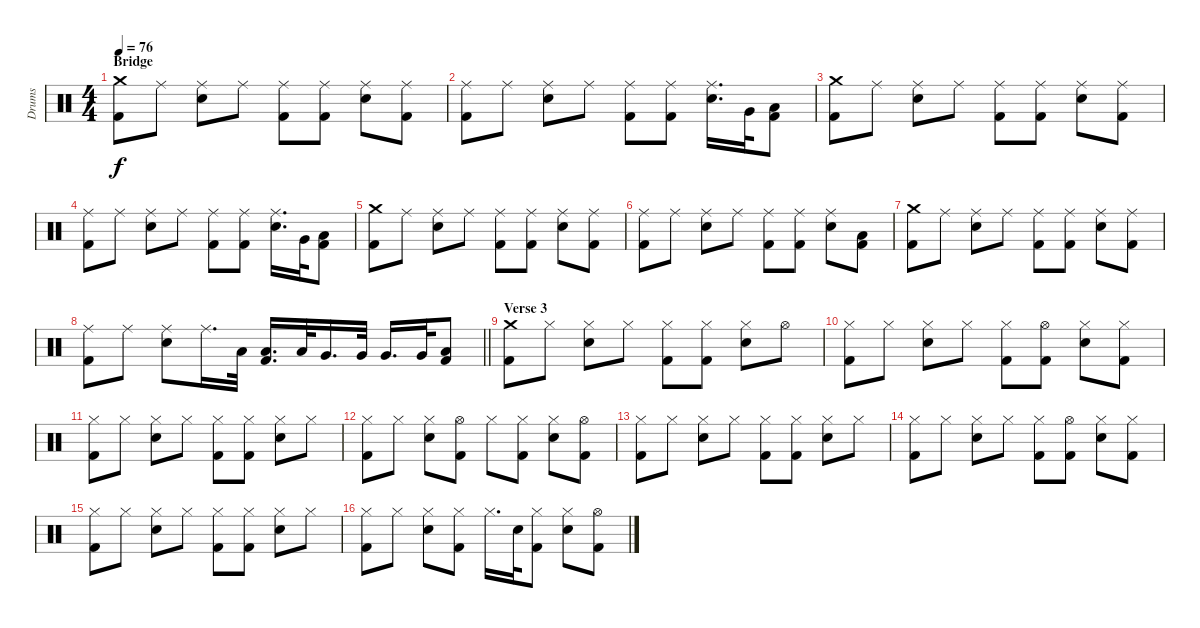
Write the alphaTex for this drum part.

\track ("Drums" "Drums") {instrument percussion}
\staff {score}
\articulation defaults
\ts (4 4)
\section ("" "Bridge")
\tempo 76
\clef neutral
\ks aminor
("Crash medium (hit)" "Kick (hit) 2").8{dy f} "Ride (middle)".8 ("Ride (middle)" "Electric Snare (hit)").8 "Ride (middle)".8 ("Ride (middle)" "Kick (hit) 2").8 ("Ride (middle)" "Kick (hit) 2").8 ("Ride (middle)" "Electric Snare (hit)").8 ("Ride (middle)" "Kick (hit) 2").8 |
("Ride (middle)" "Kick (hit) 2").8 "Ride (middle)".8 ("Ride (middle)" "Electric Snare (hit)").8 "Ride (middle)".8 ("Ride (middle)" "Kick (hit) 2").8 ("Ride (middle)" "Kick (hit) 2").8 ("Ride (middle)" "Electric Snare (hit)").16{d} "Very Low Tom (hit)".32 ("Low Floor Tom (hit)" "Kick (hit) 2").8 |
("Crash medium (hit)" "Kick (hit) 2").8 "Ride (middle)".8 ("Ride (middle)" "Electric Snare (hit)").8 "Ride (middle)".8 ("Ride (middle)" "Kick (hit) 2").8 ("Ride (middle)" "Kick (hit) 2").8 ("Ride (middle)" "Electric Snare (hit)").8 ("Ride (middle)" "Kick (hit) 2").8 |
("Ride (middle)" "Kick (hit) 2").8 "Ride (middle)".8 ("Ride (middle)" "Electric Snare (hit)").8 "Ride (middle)".8 ("Ride (middle)" "Kick (hit) 2").8 ("Ride (middle)" "Kick (hit) 2").8 ("Ride (middle)" "Electric Snare (hit)").16{d} "Very Low Tom (hit)".32 ("Low Floor Tom (hit)" "Kick (hit) 2").8 |
("Crash medium (hit)" "Kick (hit) 2").8 "Ride (middle)".8 ("Ride (middle)" "Electric Snare (hit)").8 "Ride (middle)".8 ("Ride (middle)" "Kick (hit) 2").8 ("Ride (middle)" "Kick (hit) 2").8 ("Ride (middle)" "Electric Snare (hit)").8 ("Ride (middle)" "Kick (hit) 2").8 |
("Ride (middle)" "Kick (hit) 2").8 "Ride (middle)".8 ("Ride (middle)" "Electric Snare (hit)").8 "Ride (middle)".8 ("Ride (middle)" "Kick (hit) 2").8 ("Ride (middle)" "Kick (hit) 2").8 ("Ride (middle)" "Electric Snare (hit)").8 ("Low Floor Tom (hit)" "Kick (hit) 2").8 |
("Crash medium (hit)" "Kick (hit) 2").8 "Ride (middle)".8 ("Ride (middle)" "Electric Snare (hit)").8 "Ride (middle)".8 ("Ride (middle)" "Kick (hit) 2").8 ("Ride (middle)" "Kick (hit) 2").8 ("Ride (middle)" "Electric Snare (hit)").8 ("Ride (middle)" "Kick (hit) 2").8 |
\barLineRight lightlight
("Ride (middle)" "Kick (hit) 2").8 "Ride (middle)".8 ("Ride (middle)" "Electric Snare (hit)").8 "Ride (middle)".16{d} "Low Tom (hit)".32 ("Low Tom (hit)" "Kick (hit) 2").16{d} "Low Tom (hit)".32 "Very Low Tom (hit)".16{d} "Very Low Tom (hit)".32 "Very Low Tom (hit)".16{d} "Very Low Tom (hit)".32 ("Low Floor Tom (hit)" "Kick (hit) 2").8 |
\section ("" "Verse 3")
("Crash medium (hit)" "Kick (hit) 2").8 "Hi-Hat (closed)".8 ("Hi-Hat (closed)" "Electric Snare (hit)").8 "Hi-Hat (closed)".8 ("Hi-Hat (closed)" "Kick (hit) 2").8 ("Hi-Hat (closed)" "Kick (hit) 2").8 ("Hi-Hat (closed)" "Electric Snare (hit)").8 "Hi-Hat (open)".8 |
("Hi-Hat (closed)" "Kick (hit) 2").8 "Hi-Hat (closed)".8 ("Hi-Hat (closed)" "Electric Snare (hit)").8 "Hi-Hat (closed)".8 ("Hi-Hat (closed)" "Kick (hit) 2").8 ("Hi-Hat (open)" "Kick (hit) 2").8 ("Hi-Hat (closed)" "Electric Snare (hit)").8 ("Hi-Hat (closed)" "Kick (hit) 2").8 |
("Hi-Hat (closed)" "Kick (hit) 2").8 "Hi-Hat (closed)".8 ("Hi-Hat (closed)" "Electric Snare (hit)").8 "Hi-Hat (closed)".8 ("Hi-Hat (closed)" "Kick (hit) 2").8 ("Hi-Hat (closed)" "Kick (hit) 2").8 ("Hi-Hat (closed)" "Electric Snare (hit)").8 "Hi-Hat (closed)".8 |
("Hi-Hat (closed)" "Kick (hit) 2").8 "Hi-Hat (closed)".8 ("Hi-Hat (closed)" "Electric Snare (hit)").8 ("Hi-Hat (open)" "Kick (hit) 2").8 "Hi-Hat (closed)".8 ("Hi-Hat (closed)" "Kick (hit) 2").8 ("Hi-Hat (closed)" "Electric Snare (hit)").8 ("Hi-Hat (open)" "Kick (hit) 2").8 |
("Hi-Hat (closed)" "Kick (hit) 2").8 "Hi-Hat (closed)".8 ("Hi-Hat (closed)" "Electric Snare (hit)").8 "Hi-Hat (closed)".8 ("Hi-Hat (closed)" "Kick (hit) 2").8 ("Hi-Hat (closed)" "Kick (hit) 2").8 ("Hi-Hat (closed)" "Electric Snare (hit)").8 "Hi-Hat (closed)".8 |
("Hi-Hat (closed)" "Kick (hit) 2").8 "Hi-Hat (closed)".8 ("Hi-Hat (closed)" "Electric Snare (hit)").8 "Hi-Hat (closed)".8 ("Hi-Hat (closed)" "Kick (hit) 2").8 ("Hi-Hat (open)" "Kick (hit) 2").8 ("Hi-Hat (closed)" "Electric Snare (hit)").8 ("Hi-Hat (closed)" "Kick (hit) 2").8 |
("Hi-Hat (closed)" "Kick (hit) 2").8 "Hi-Hat (closed)".8 ("Hi-Hat (closed)" "Electric Snare (hit)").8 "Hi-Hat (closed)".8 ("Hi-Hat (closed)" "Kick (hit) 2").8 ("Hi-Hat (closed)" "Kick (hit) 2").8 ("Hi-Hat (closed)" "Electric Snare (hit)").8 "Hi-Hat (closed)".8 |
("Hi-Hat (closed)" "Kick (hit) 2").8 "Hi-Hat (closed)".8 ("Hi-Hat (closed)" "Electric Snare (hit)").8 ("Hi-Hat (closed)" "Kick (hit) 2").8 "Hi-Hat (closed)".16{d} "Electric Snare (hit)".32 ("Hi-Hat (closed)" "Kick (hit) 2").8 ("Hi-Hat (closed)" "Electric Snare (hit)").8 ("Hi-Hat (open)" "Kick (hit) 2").8
